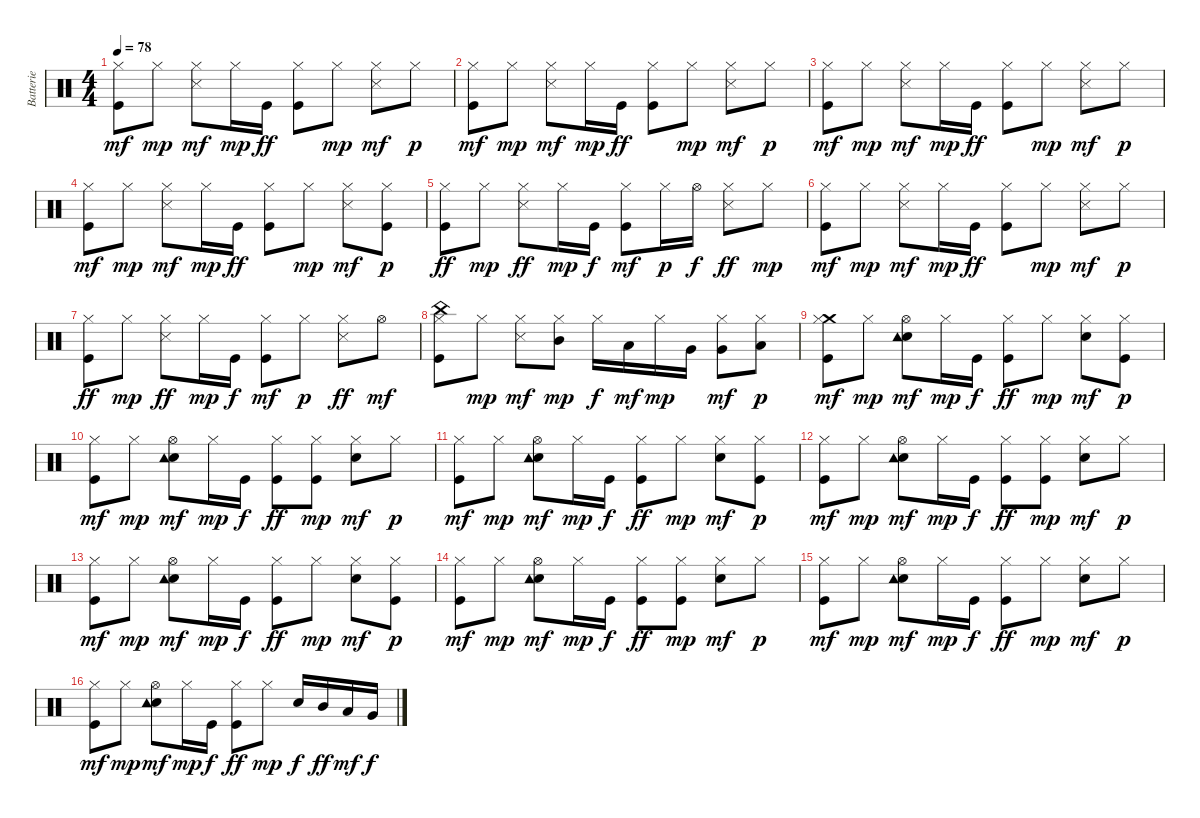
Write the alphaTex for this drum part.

\track ("Batterie" "Batterie") {instrument percussion}
\staff {score}
\articulation defaults
\ts (4 4)
\tempo 78
\clef neutral
\ks c
("Kick (hit)" "Hi-Hat (closed)").8{dy mf} "Hi-Hat (closed)".8{dy mp} ("Snare (side stick) 3" "Hi-Hat (closed)").8{dy mf} "Hi-Hat (closed)".16{dy mp} "Kick (hit)".16{dy ff} ("Kick (hit)" "Hi-Hat (closed)").8 "Hi-Hat (closed)".8{dy mp} ("Snare (side stick) 3" "Hi-Hat (closed)").8{dy mf} "Hi-Hat (closed)".8{dy p} |
("Kick (hit)" "Hi-Hat (closed)").8{dy mf} "Hi-Hat (closed)".8{dy mp} ("Snare (side stick) 3" "Hi-Hat (closed)").8{dy mf} "Hi-Hat (closed)".16{dy mp} "Kick (hit)".16{dy ff} ("Kick (hit)" "Hi-Hat (closed)").8 "Hi-Hat (closed)".8{dy mp} ("Snare (side stick) 3" "Hi-Hat (closed)").8{dy mf} "Hi-Hat (closed)".8{dy p} |
("Kick (hit)" "Hi-Hat (closed)").8{dy mf} "Hi-Hat (closed)".8{dy mp} ("Snare (side stick) 3" "Hi-Hat (closed)").8{dy mf} "Hi-Hat (closed)".16{dy mp} "Kick (hit)".16{dy ff} ("Kick (hit)" "Hi-Hat (closed)").8 "Hi-Hat (closed)".8{dy mp} ("Snare (side stick) 3" "Hi-Hat (closed)").8{dy mf} "Hi-Hat (closed)".8{dy p} |
("Kick (hit)" "Hi-Hat (closed)").8{dy mf} "Hi-Hat (closed)".8{dy mp} ("Snare (side stick) 3" "Hi-Hat (closed)").8{dy mf} "Hi-Hat (closed)".16{dy mp} "Kick (hit)".16{dy ff} ("Kick (hit)" "Hi-Hat (closed)").8 "Hi-Hat (closed)".8{dy mp} ("Snare (side stick) 3" "Hi-Hat (closed)").8{dy mf} ("Kick (hit)" "Hi-Hat (closed)").8{dy p} |
("Kick (hit)" "Hi-Hat (closed)").8{dy ff} "Hi-Hat (closed)".8{dy mp} ("Snare (side stick) 3" "Hi-Hat (closed)").8{dy ff} "Hi-Hat (closed)".16{dy mp} "Kick (hit)".16{dy f} ("Kick (hit)" "Hi-Hat (closed)").8{dy mf} "Hi-Hat (closed)".16{dy p} "Hi-Hat (open)".16{dy f} ("Snare (side stick) 3" "Hi-Hat (closed)").8{dy ff} "Hi-Hat (closed)".8{dy mp} |
("Kick (hit)" "Hi-Hat (closed)").8{dy mf} "Hi-Hat (closed)".8{dy mp} ("Snare (side stick) 3" "Hi-Hat (closed)").8{dy mf} "Hi-Hat (closed)".16{dy mp} "Kick (hit)".16{dy ff} ("Kick (hit)" "Hi-Hat (closed)").8 "Hi-Hat (closed)".8{dy mp} ("Snare (side stick) 3" "Hi-Hat (closed)").8{dy mf} "Hi-Hat (closed)".8{dy p} |
("Kick (hit)" "Hi-Hat (closed)").8{dy ff} "Hi-Hat (closed)".8{dy mp} ("Snare (side stick) 3" "Hi-Hat (closed)").8{dy ff} "Hi-Hat (closed)".16{dy mp} "Kick (hit)".16{dy f} ("Kick (hit)" "Hi-Hat (closed)").8{dy mf} "Hi-Hat (closed)".8{dy p} ("Snare (side stick) 3" "Hi-Hat (closed)").8{dy ff} "Hi-Hat (open)".8{dy mf} |
("China (hit)" "Kick (hit)" "Hi-Hat (closed)").8 "Hi-Hat (closed)".8{dy mp} ("Snare (side stick) 3" "Hi-Hat (closed)").8{dy mf} ("Mid Tom (hit)" "Hi-Hat (closed)").8{dy mp} "Hi-Hat (closed)".16{dy f} "Low Tom (hit)".16{dy mf} "Hi-Hat (closed)".16{dy mp} "Very Low Tom (hit)".16 ("Very Low Tom (hit)" "Hi-Hat (closed)").8{dy mf} ("Low Floor Tom (hit)" "Hi-Hat (closed)").8{dy p} |
("Crash medium (hit)" "Kick (hit)" "Hi-Hat (closed)").8{dy mf} "Hi-Hat (closed)".8{dy mp} ("Hi-Hat (open)" "Electric Snare (hit)" "Tambourine (hit)").8{dy mf} "Hi-Hat (closed)".16{dy mp} "Kick (hit)".16{dy f} ("Kick (hit)" "Hi-Hat (closed)").8{dy ff} "Hi-Hat (closed)".8{dy mp} ("Electric Snare (hit)" "Hi-Hat (closed)").8{dy mf} ("Kick (hit)" "Hi-Hat (closed)").8{dy p} |
("Kick (hit)" "Hi-Hat (closed)").8{dy mf} "Hi-Hat (closed)".8{dy mp} ("Hi-Hat (open)" "Electric Snare (hit)" "Tambourine (hit)").8{dy mf} "Hi-Hat (closed)".16{dy mp} "Kick (hit)".16{dy f} ("Kick (hit)" "Hi-Hat (closed)").8{dy ff} ("Kick (hit)" "Hi-Hat (closed)").8{dy mp} ("Electric Snare (hit)" "Hi-Hat (closed)").8{dy mf} "Hi-Hat (closed)".8{dy p} |
("Kick (hit)" "Hi-Hat (closed)").8{dy mf} "Hi-Hat (closed)".8{dy mp} ("Hi-Hat (open)" "Electric Snare (hit)" "Tambourine (hit)").8{dy mf} "Hi-Hat (closed)".16{dy mp} "Kick (hit)".16{dy f} ("Kick (hit)" "Hi-Hat (closed)").8{dy ff} "Hi-Hat (closed)".8{dy mp} ("Electric Snare (hit)" "Hi-Hat (closed)").8{dy mf} ("Kick (hit)" "Hi-Hat (closed)").8{dy p} |
("Kick (hit)" "Hi-Hat (closed)").8{dy mf} "Hi-Hat (closed)".8{dy mp} ("Hi-Hat (open)" "Electric Snare (hit)" "Tambourine (hit)").8{dy mf} "Hi-Hat (closed)".16{dy mp} "Kick (hit)".16{dy f} ("Kick (hit)" "Hi-Hat (closed)").8{dy ff} ("Kick (hit)" "Hi-Hat (closed)").8{dy mp} ("Electric Snare (hit)" "Hi-Hat (closed)").8{dy mf} "Hi-Hat (closed)".8{dy p} |
("Kick (hit)" "Hi-Hat (closed)").8{dy mf} "Hi-Hat (closed)".8{dy mp} ("Hi-Hat (open)" "Electric Snare (hit)" "Tambourine (hit)").8{dy mf} "Hi-Hat (closed)".16{dy mp} "Kick (hit)".16{dy f} ("Kick (hit)" "Hi-Hat (closed)").8{dy ff} "Hi-Hat (closed)".8{dy mp} ("Electric Snare (hit)" "Hi-Hat (closed)").8{dy mf} ("Kick (hit)" "Hi-Hat (closed)").8{dy p} |
("Kick (hit)" "Hi-Hat (closed)").8{dy mf} "Hi-Hat (closed)".8{dy mp} ("Hi-Hat (open)" "Electric Snare (hit)" "Tambourine (hit)").8{dy mf} "Hi-Hat (closed)".16{dy mp} "Kick (hit)".16{dy f} ("Kick (hit)" "Hi-Hat (closed)").8{dy ff} ("Kick (hit)" "Hi-Hat (closed)").8{dy mp} ("Electric Snare (hit)" "Hi-Hat (closed)").8{dy mf} "Hi-Hat (closed)".8{dy p} |
("Kick (hit)" "Hi-Hat (closed)").8{dy mf} "Hi-Hat (closed)".8{dy mp} ("Hi-Hat (open)" "Electric Snare (hit)" "Tambourine (hit)").8{dy mf} "Hi-Hat (closed)".16{dy mp} "Kick (hit)".16{dy f} ("Kick (hit)" "Hi-Hat (closed)").8{dy ff} "Hi-Hat (closed)".8{dy mp} ("Electric Snare (hit)" "Hi-Hat (closed)").8{dy mf} "Hi-Hat (closed)".8{dy p} |
("Kick (hit)" "Hi-Hat (closed)").8{dy mf} "Hi-Hat (closed)".8{dy mp} ("Hi-Hat (open)" "Electric Snare (hit)" "Tambourine (hit)").8{dy mf} "Hi-Hat (closed)".16{dy mp} "Kick (hit)".16{dy f} ("Kick (hit)" "Hi-Hat (closed)").8{dy ff} "Hi-Hat (closed)".8{dy mp} "Electric Snare (hit)".16{dy f} "Mid Tom (hit)".16{dy ff} "Low Tom (hit)".16{dy mf} "Very Low Tom (hit)".16{dy f}
